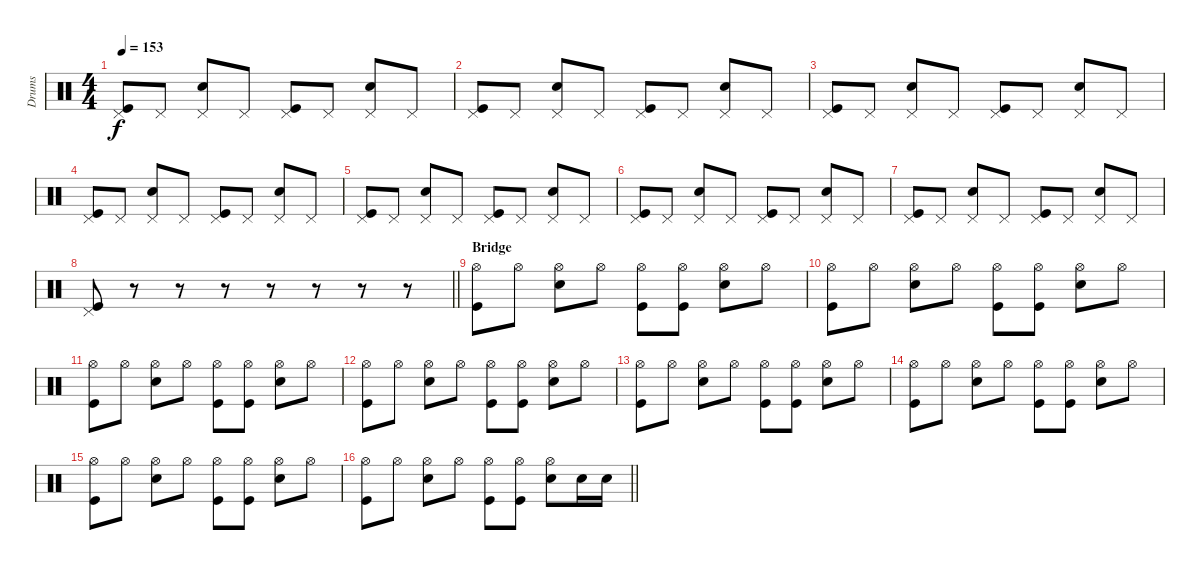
\track ("Drums" "Drums") {instrument percussion}
\staff {score}
\articulation defaults
\ts (4 4)
\tempo 153
\clef neutral
\ks c
("Pedal Hi-Hat (hit)" "Kick (hit)").8{dy f} "Pedal Hi-Hat (hit)".8 ("Pedal Hi-Hat (hit)" "Snare (hit) 2").8 "Pedal Hi-Hat (hit)".8 ("Pedal Hi-Hat (hit)" "Kick (hit)").8 "Pedal Hi-Hat (hit)".8 ("Pedal Hi-Hat (hit)" "Snare (hit) 2").8 "Pedal Hi-Hat (hit)".8 |
("Pedal Hi-Hat (hit)" "Kick (hit)").8 "Pedal Hi-Hat (hit)".8 ("Pedal Hi-Hat (hit)" "Snare (hit) 2").8 "Pedal Hi-Hat (hit)".8 ("Pedal Hi-Hat (hit)" "Kick (hit)").8 "Pedal Hi-Hat (hit)".8 ("Pedal Hi-Hat (hit)" "Snare (hit) 2").8 "Pedal Hi-Hat (hit)".8 |
("Pedal Hi-Hat (hit)" "Kick (hit)").8 "Pedal Hi-Hat (hit)".8 ("Pedal Hi-Hat (hit)" "Snare (hit) 2").8 "Pedal Hi-Hat (hit)".8 ("Pedal Hi-Hat (hit)" "Kick (hit)").8 "Pedal Hi-Hat (hit)".8 ("Pedal Hi-Hat (hit)" "Snare (hit) 2").8 "Pedal Hi-Hat (hit)".8 |
("Pedal Hi-Hat (hit)" "Kick (hit)").8 "Pedal Hi-Hat (hit)".8 ("Pedal Hi-Hat (hit)" "Snare (hit) 2").8 "Pedal Hi-Hat (hit)".8 ("Pedal Hi-Hat (hit)" "Kick (hit)").8 "Pedal Hi-Hat (hit)".8 ("Pedal Hi-Hat (hit)" "Snare (hit) 2").8 "Pedal Hi-Hat (hit)".8 |
("Pedal Hi-Hat (hit)" "Kick (hit)").8 "Pedal Hi-Hat (hit)".8 ("Pedal Hi-Hat (hit)" "Snare (hit) 2").8 "Pedal Hi-Hat (hit)".8 ("Pedal Hi-Hat (hit)" "Kick (hit)").8 "Pedal Hi-Hat (hit)".8 ("Pedal Hi-Hat (hit)" "Snare (hit) 2").8 "Pedal Hi-Hat (hit)".8 |
("Pedal Hi-Hat (hit)" "Kick (hit)").8 "Pedal Hi-Hat (hit)".8 ("Pedal Hi-Hat (hit)" "Snare (hit) 2").8 "Pedal Hi-Hat (hit)".8 ("Pedal Hi-Hat (hit)" "Kick (hit)").8 "Pedal Hi-Hat (hit)".8 ("Pedal Hi-Hat (hit)" "Snare (hit) 2").8 "Pedal Hi-Hat (hit)".8 |
("Pedal Hi-Hat (hit)" "Kick (hit)").8 "Pedal Hi-Hat (hit)".8 ("Pedal Hi-Hat (hit)" "Snare (hit) 2").8 "Pedal Hi-Hat (hit)".8 ("Pedal Hi-Hat (hit)" "Kick (hit)").8 "Pedal Hi-Hat (hit)".8 ("Pedal Hi-Hat (hit)" "Snare (hit) 2").8 "Pedal Hi-Hat (hit)".8 |
\barLineRight lightlight
("Pedal Hi-Hat (hit)" "Kick (hit)").8 r.8 r.8 r.8 r.8 r.8 r.8 r.8 |
\section ("" "Bridge")
("Hi-Hat (open)" "Kick (hit)").8 "Hi-Hat (open)".8 ("Hi-Hat (open)" "Snare (hit) 2").8 "Hi-Hat (open)".8 ("Hi-Hat (open)" "Kick (hit)").8 ("Hi-Hat (open)" "Kick (hit)").8 ("Hi-Hat (open)" "Snare (hit) 2").8 "Hi-Hat (open)".8 |
("Hi-Hat (open)" "Kick (hit)").8 "Hi-Hat (open)".8 ("Hi-Hat (open)" "Snare (hit) 2").8 "Hi-Hat (open)".8 ("Hi-Hat (open)" "Kick (hit)").8 ("Hi-Hat (open)" "Kick (hit)").8 ("Hi-Hat (open)" "Snare (hit) 2").8 "Hi-Hat (open)".8 |
("Hi-Hat (open)" "Kick (hit)").8 "Hi-Hat (open)".8 ("Hi-Hat (open)" "Snare (hit) 2").8 "Hi-Hat (open)".8 ("Hi-Hat (open)" "Kick (hit)").8 ("Hi-Hat (open)" "Kick (hit)").8 ("Hi-Hat (open)" "Snare (hit) 2").8 "Hi-Hat (open)".8 |
("Hi-Hat (open)" "Kick (hit)").8 "Hi-Hat (open)".8 ("Hi-Hat (open)" "Snare (hit) 2").8 "Hi-Hat (open)".8 ("Hi-Hat (open)" "Kick (hit)").8 ("Hi-Hat (open)" "Kick (hit)").8 ("Hi-Hat (open)" "Snare (hit) 2").8 "Hi-Hat (open)".8 |
("Hi-Hat (open)" "Kick (hit)").8 "Hi-Hat (open)".8 ("Hi-Hat (open)" "Snare (hit) 2").8 "Hi-Hat (open)".8 ("Hi-Hat (open)" "Kick (hit)").8 ("Hi-Hat (open)" "Kick (hit)").8 ("Hi-Hat (open)" "Snare (hit) 2").8 "Hi-Hat (open)".8 |
("Hi-Hat (open)" "Kick (hit)").8 "Hi-Hat (open)".8 ("Hi-Hat (open)" "Snare (hit) 2").8 "Hi-Hat (open)".8 ("Hi-Hat (open)" "Kick (hit)").8 ("Hi-Hat (open)" "Kick (hit)").8 ("Hi-Hat (open)" "Snare (hit) 2").8 "Hi-Hat (open)".8 |
("Hi-Hat (open)" "Kick (hit)").8 "Hi-Hat (open)".8 ("Hi-Hat (open)" "Snare (hit) 2").8 "Hi-Hat (open)".8 ("Hi-Hat (open)" "Kick (hit)").8 ("Hi-Hat (open)" "Kick (hit)").8 ("Hi-Hat (open)" "Snare (hit) 2").8 "Hi-Hat (open)".8 |
\barLineRight lightlight
("Hi-Hat (open)" "Kick (hit)").8 "Hi-Hat (open)".8 ("Hi-Hat (open)" "Snare (hit) 2").8 "Hi-Hat (open)".8 ("Hi-Hat (open)" "Kick (hit)").8 ("Hi-Hat (open)" "Kick (hit)").8 ("Hi-Hat (open)" "Snare (hit) 2").8 "Snare (hit) 2".16 "Snare (hit) 2".16
